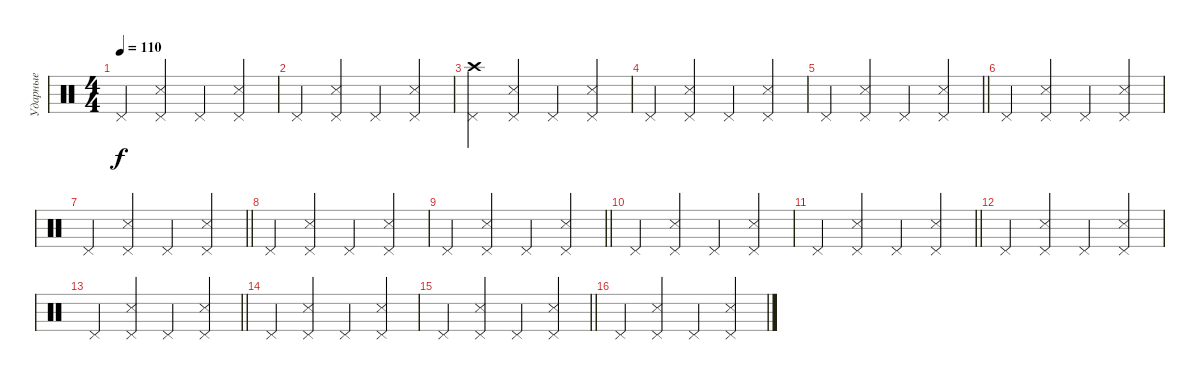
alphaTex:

\track ("Ударные" "Ударные") {instrument percussion}
\staff {score}
\articulation defaults
\ts (4 4)
\tempo 110
\clef neutral
\ks c "Pedal Hi-Hat (hit)".4{dy f}
("Pedal Hi-Hat (hit)" "Snare (side stick) 3").4 "Pedal Hi-Hat (hit)".4 ("Pedal Hi-Hat (hit)" "Snare (side stick) 3").4 |
"Pedal Hi-Hat (hit)".4 ("Pedal Hi-Hat (hit)" "Snare (side stick) 3").4 "Pedal Hi-Hat (hit)".4 ("Pedal Hi-Hat (hit)" "Snare (side stick) 3").4 |
("Pedal Hi-Hat (hit)" "Crash high (hit)").4 ("Pedal Hi-Hat (hit)" "Snare (side stick) 3").4 "Pedal Hi-Hat (hit)".4 ("Pedal Hi-Hat (hit)" "Snare (side stick) 3").4 |
"Pedal Hi-Hat (hit)".4 ("Pedal Hi-Hat (hit)" "Snare (side stick) 3").4 "Pedal Hi-Hat (hit)".4 ("Pedal Hi-Hat (hit)" "Snare (side stick) 3").4 |
\barLineRight lightlight "Pedal Hi-Hat (hit)".4
("Pedal Hi-Hat (hit)" "Snare (side stick) 3").4 "Pedal Hi-Hat (hit)".4 ("Pedal Hi-Hat (hit)" "Snare (side stick) 3").4 |
"Pedal Hi-Hat (hit)".4 ("Pedal Hi-Hat (hit)" "Snare (side stick) 3").4 "Pedal Hi-Hat (hit)".4 ("Pedal Hi-Hat (hit)" "Snare (side stick) 3").4 |
\barLineRight lightlight "Pedal Hi-Hat (hit)".4
("Pedal Hi-Hat (hit)" "Snare (side stick) 3").4 "Pedal Hi-Hat (hit)".4 ("Pedal Hi-Hat (hit)" "Snare (side stick) 3").4 |
"Pedal Hi-Hat (hit)".4 ("Pedal Hi-Hat (hit)" "Snare (side stick) 3").4 "Pedal Hi-Hat (hit)".4 ("Pedal Hi-Hat (hit)" "Snare (side stick) 3").4 |
\barLineRight lightlight "Pedal Hi-Hat (hit)".4
("Pedal Hi-Hat (hit)" "Snare (side stick) 3").4 "Pedal Hi-Hat (hit)".4 ("Pedal Hi-Hat (hit)" "Snare (side stick) 3").4 |
"Pedal Hi-Hat (hit)".4 ("Pedal Hi-Hat (hit)" "Snare (side stick) 3").4 "Pedal Hi-Hat (hit)".4 ("Pedal Hi-Hat (hit)" "Snare (side stick) 3").4 |
\barLineRight lightlight "Pedal Hi-Hat (hit)".4
("Pedal Hi-Hat (hit)" "Snare (side stick) 3").4 "Pedal Hi-Hat (hit)".4 ("Pedal Hi-Hat (hit)" "Snare (side stick) 3").4 |
"Pedal Hi-Hat (hit)".4 ("Pedal Hi-Hat (hit)" "Snare (side stick) 3").4 "Pedal Hi-Hat (hit)".4 ("Pedal Hi-Hat (hit)" "Snare (side stick) 3").4 |
\barLineRight lightlight "Pedal Hi-Hat (hit)".4
("Pedal Hi-Hat (hit)" "Snare (side stick) 3").4 "Pedal Hi-Hat (hit)".4 ("Pedal Hi-Hat (hit)" "Snare (side stick) 3").4 |
"Pedal Hi-Hat (hit)".4 ("Pedal Hi-Hat (hit)" "Snare (side stick) 3").4 "Pedal Hi-Hat (hit)".4 ("Pedal Hi-Hat (hit)" "Snare (side stick) 3").4 |
\barLineRight lightlight "Pedal Hi-Hat (hit)".4
("Pedal Hi-Hat (hit)" "Snare (side stick) 3").4 "Pedal Hi-Hat (hit)".4 ("Pedal Hi-Hat (hit)" "Snare (side stick) 3").4 |
"Pedal Hi-Hat (hit)".4 ("Pedal Hi-Hat (hit)" "Snare (side stick) 3").4 "Pedal Hi-Hat (hit)".4 ("Pedal Hi-Hat (hit)" "Snare (side stick) 3").4
